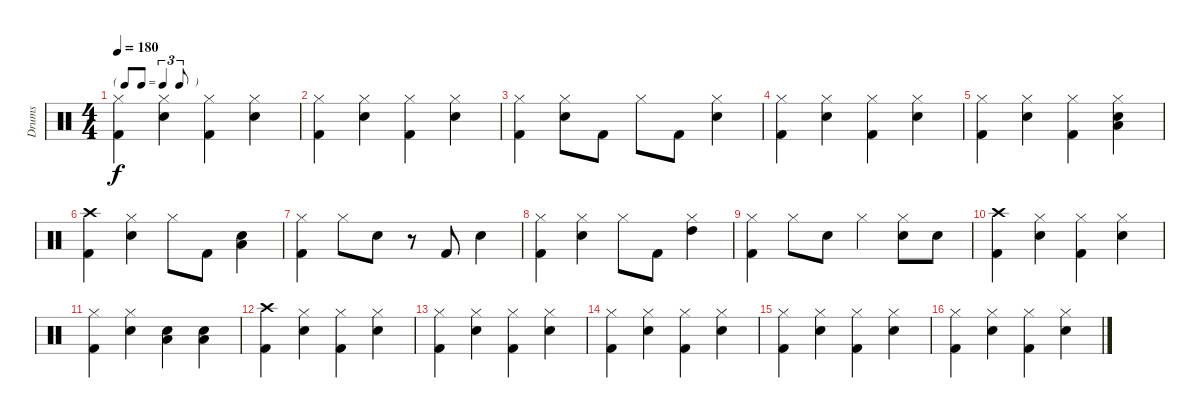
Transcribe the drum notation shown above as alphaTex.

\track ("Drums" "Drums") {instrument percussion}
\staff {score}
\articulation defaults
\ts (4 4)
\tf triplet8th
\tempo 180
\clef neutral
\ks c
("Hi-Hat (closed)" "Kick (hit) 2").4{dy f} ("Hi-Hat (closed)" "Snare (hit) 2").4 ("Hi-Hat (closed)" "Kick (hit) 2").4 ("Hi-Hat (closed)" "Snare (hit) 2").4 |
("Hi-Hat (closed)" "Kick (hit) 2").4 ("Hi-Hat (closed)" "Snare (hit) 2").4 ("Hi-Hat (closed)" "Kick (hit) 2").4 ("Hi-Hat (closed)" "Snare (hit) 2").4 |
("Hi-Hat (closed)" "Kick (hit) 2").4 ("Hi-Hat (closed)" "Snare (hit) 2").8 "Kick (hit) 2".8 "Hi-Hat (closed)".8 "Kick (hit) 2".8 ("Hi-Hat (closed)" "Snare (hit) 2").4 |
("Hi-Hat (closed)" "Kick (hit) 2").4 ("Hi-Hat (closed)" "Snare (hit) 2").4 ("Hi-Hat (closed)" "Kick (hit) 2").4 ("Hi-Hat (closed)" "Snare (hit) 2").4 |
("Hi-Hat (closed)" "Kick (hit) 2").4 ("Hi-Hat (closed)" "Snare (hit) 2").4 ("Hi-Hat (closed)" "Kick (hit) 2").4 ("Hi-Hat (closed)" "Snare (hit) 2" "Low Tom (hit)").4 |
("Crash high (hit)" "Kick (hit) 2").4 ("Hi-Hat (closed)" "Snare (hit) 2").4 "Hi-Hat (closed)".8 "Kick (hit) 2".8 ("Snare (hit) 2" "Low Tom (hit)").4 |
("Hi-Hat (closed)" "Kick (hit) 2").4 "Hi-Hat (closed)".8 "Snare (hit) 2".8 r.8 "Kick (hit) 2".8 "Snare (hit) 2".4 |
("Hi-Hat (closed)" "Kick (hit) 2").4 ("Hi-Hat (closed)" "Snare (hit) 2").4 "Hi-Hat (closed)".8 "Kick (hit) 2".8 ("Hi-Hat (closed)" "High Tom (hit)").4 |
("Hi-Hat (closed)" "Kick (hit) 2").4 "Hi-Hat (closed)".8 "Snare (hit) 2".8 "Hi-Hat (closed)".4 ("Hi-Hat (closed)" "Snare (hit) 2").8 "Snare (hit) 2".8 |
("Crash high (hit)" "Kick (hit) 2").4 ("Hi-Hat (closed)" "Snare (hit) 2").4 ("Hi-Hat (closed)" "Kick (hit) 2").4 ("Hi-Hat (closed)" "Snare (hit) 2").4 |
("Hi-Hat (closed)" "Kick (hit) 2").4 ("Hi-Hat (closed)" "Snare (hit) 2").4 ("Snare (hit) 2" "Low Tom (hit)").4 ("Snare (hit) 2" "Low Tom (hit)").4 |
("Crash high (hit)" "Kick (hit) 2").4 ("Hi-Hat (closed)" "Snare (hit) 2").4 ("Hi-Hat (closed)" "Kick (hit) 2").4 ("Hi-Hat (closed)" "Snare (hit) 2").4 |
("Hi-Hat (closed)" "Kick (hit) 2").4 ("Hi-Hat (closed)" "Snare (hit) 2").4 ("Hi-Hat (closed)" "Kick (hit) 2").4 ("Hi-Hat (closed)" "Snare (hit) 2").4 |
("Hi-Hat (closed)" "Kick (hit) 2").4 ("Hi-Hat (closed)" "Snare (hit) 2").4 ("Hi-Hat (closed)" "Kick (hit) 2").4 ("Hi-Hat (closed)" "Snare (hit) 2").4 |
("Hi-Hat (closed)" "Kick (hit) 2").4 ("Hi-Hat (closed)" "Snare (hit) 2").4 ("Hi-Hat (closed)" "Kick (hit) 2").4 ("Hi-Hat (closed)" "Snare (hit) 2").4 |
("Hi-Hat (closed)" "Kick (hit) 2").4 ("Hi-Hat (closed)" "Snare (hit) 2").4 ("Hi-Hat (closed)" "Kick (hit) 2").4 ("Hi-Hat (closed)" "Snare (hit) 2").4
